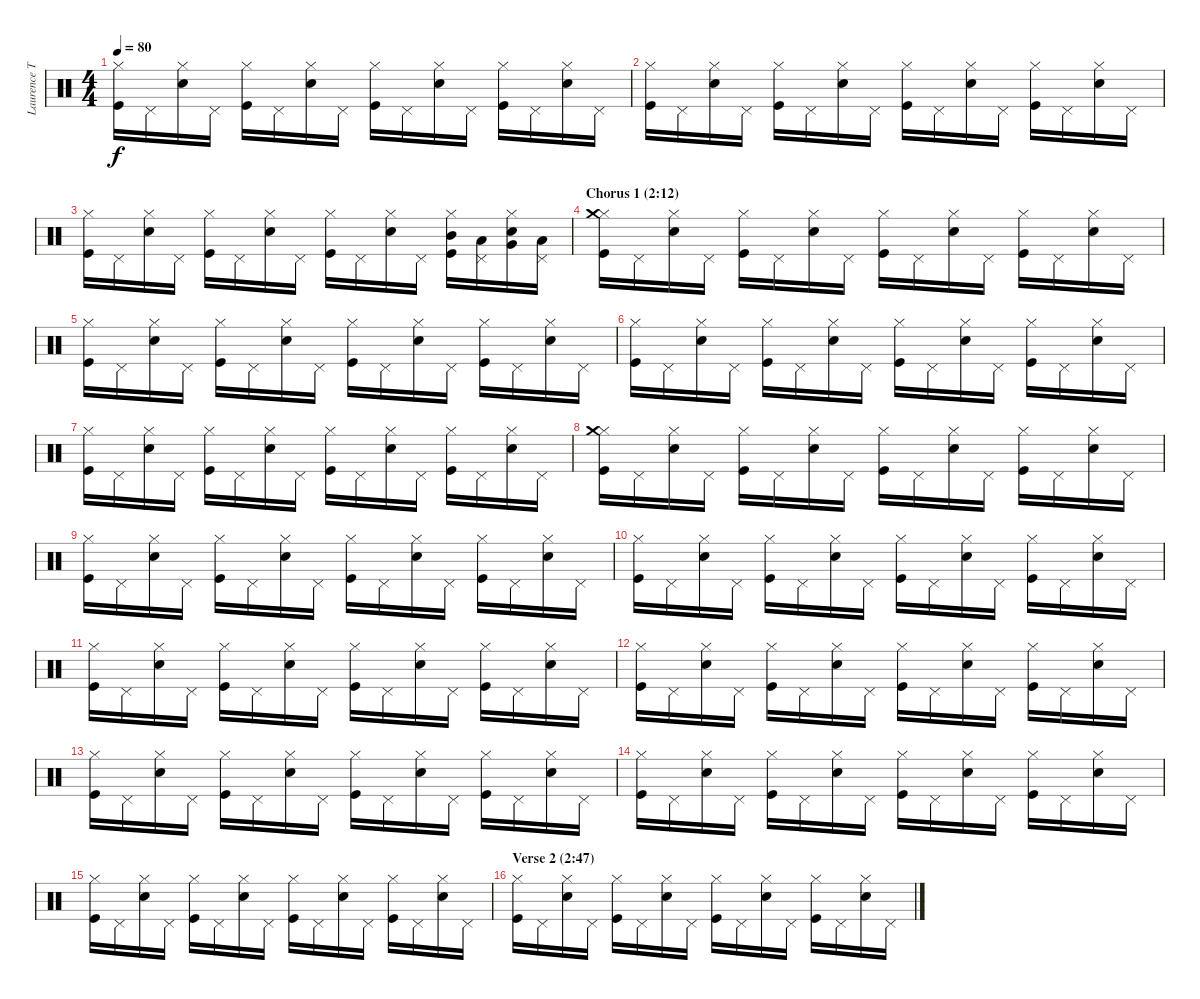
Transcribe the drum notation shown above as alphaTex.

\track ("Laurence Tolhurst (drums)" "Laurence T") {instrument percussion}
\staff {score}
\articulation defaults
\ts (4 4)
\tempo 80
\clef neutral
\ks c
("Kick (hit)" "Hi-Hat (closed)").16{dy f} "Pedal Hi-Hat (hit)".16 ("Snare (hit) 2" "Hi-Hat (closed)").16 "Pedal Hi-Hat (hit)".16 ("Kick (hit)" "Hi-Hat (closed)").16 "Pedal Hi-Hat (hit)".16 ("Snare (hit) 2" "Hi-Hat (closed)").16 "Pedal Hi-Hat (hit)".16 ("Kick (hit)" "Hi-Hat (closed)").16 "Pedal Hi-Hat (hit)".16 ("Snare (hit) 2" "Hi-Hat (closed)").16 "Pedal Hi-Hat (hit)".16 ("Kick (hit)" "Hi-Hat (closed)").16 "Pedal Hi-Hat (hit)".16 ("Snare (hit) 2" "Hi-Hat (closed)").16 "Pedal Hi-Hat (hit)".16 |
("Kick (hit)" "Hi-Hat (closed)").16 "Pedal Hi-Hat (hit)".16 ("Snare (hit) 2" "Hi-Hat (closed)").16 "Pedal Hi-Hat (hit)".16 ("Kick (hit)" "Hi-Hat (closed)").16 "Pedal Hi-Hat (hit)".16 ("Snare (hit) 2" "Hi-Hat (closed)").16 "Pedal Hi-Hat (hit)".16 ("Kick (hit)" "Hi-Hat (closed)").16 "Pedal Hi-Hat (hit)".16 ("Snare (hit) 2" "Hi-Hat (closed)").16 "Pedal Hi-Hat (hit)".16 ("Kick (hit)" "Hi-Hat (closed)").16 "Pedal Hi-Hat (hit)".16 ("Snare (hit) 2" "Hi-Hat (closed)").16 "Pedal Hi-Hat (hit)".16 |
("Kick (hit)" "Hi-Hat (closed)").16 "Pedal Hi-Hat (hit)".16 ("Snare (hit) 2" "Hi-Hat (closed)").16 "Pedal Hi-Hat (hit)".16 ("Kick (hit)" "Hi-Hat (closed)").16 "Pedal Hi-Hat (hit)".16 ("Snare (hit) 2" "Hi-Hat (closed)").16 "Pedal Hi-Hat (hit)".16 ("Kick (hit)" "Hi-Hat (closed)").16 "Pedal Hi-Hat (hit)".16 ("Snare (hit) 2" "Hi-Hat (closed)").16 "Pedal Hi-Hat (hit)".16 ("Kick (hit)" "Hi-Hat (closed)" "Mid Tom (hit)").16 ("Pedal Hi-Hat (hit)" "Low Tom (hit)").16 ("Snare (hit) 2" "Hi-Hat (closed)" "Very Low Tom (hit)").16 ("Pedal Hi-Hat (hit)" "Low Floor Tom (hit)").16 |
\section ("" "Chorus 1 (2:12)")
("Kick (hit)" "Hi-Hat (closed)" "Crash medium (hit)").16 "Pedal Hi-Hat (hit)".16 ("Snare (hit) 2" "Hi-Hat (closed)").16 "Pedal Hi-Hat (hit)".16 ("Kick (hit)" "Hi-Hat (closed)").16 "Pedal Hi-Hat (hit)".16 ("Snare (hit) 2" "Hi-Hat (closed)").16 "Pedal Hi-Hat (hit)".16 ("Kick (hit)" "Hi-Hat (closed)").16 "Pedal Hi-Hat (hit)".16 ("Snare (hit) 2" "Hi-Hat (closed)").16 "Pedal Hi-Hat (hit)".16 ("Kick (hit)" "Hi-Hat (closed)").16 "Pedal Hi-Hat (hit)".16 ("Snare (hit) 2" "Hi-Hat (closed)").16 "Pedal Hi-Hat (hit)".16 |
("Kick (hit)" "Hi-Hat (closed)").16 "Pedal Hi-Hat (hit)".16 ("Snare (hit) 2" "Hi-Hat (closed)").16 "Pedal Hi-Hat (hit)".16 ("Kick (hit)" "Hi-Hat (closed)").16 "Pedal Hi-Hat (hit)".16 ("Snare (hit) 2" "Hi-Hat (closed)").16 "Pedal Hi-Hat (hit)".16 ("Kick (hit)" "Hi-Hat (closed)").16 "Pedal Hi-Hat (hit)".16 ("Snare (hit) 2" "Hi-Hat (closed)").16 "Pedal Hi-Hat (hit)".16 ("Kick (hit)" "Hi-Hat (closed)").16 "Pedal Hi-Hat (hit)".16 ("Snare (hit) 2" "Hi-Hat (closed)").16 "Pedal Hi-Hat (hit)".16 |
("Kick (hit)" "Hi-Hat (closed)").16 "Pedal Hi-Hat (hit)".16 ("Snare (hit) 2" "Hi-Hat (closed)").16 "Pedal Hi-Hat (hit)".16 ("Kick (hit)" "Hi-Hat (closed)").16 "Pedal Hi-Hat (hit)".16 ("Snare (hit) 2" "Hi-Hat (closed)").16 "Pedal Hi-Hat (hit)".16 ("Kick (hit)" "Hi-Hat (closed)").16 "Pedal Hi-Hat (hit)".16 ("Snare (hit) 2" "Hi-Hat (closed)").16 "Pedal Hi-Hat (hit)".16 ("Kick (hit)" "Hi-Hat (closed)").16 "Pedal Hi-Hat (hit)".16 ("Snare (hit) 2" "Hi-Hat (closed)").16 "Pedal Hi-Hat (hit)".16 |
("Kick (hit)" "Hi-Hat (closed)").16 "Pedal Hi-Hat (hit)".16 ("Snare (hit) 2" "Hi-Hat (closed)").16 "Pedal Hi-Hat (hit)".16 ("Kick (hit)" "Hi-Hat (closed)").16 "Pedal Hi-Hat (hit)".16 ("Snare (hit) 2" "Hi-Hat (closed)").16 "Pedal Hi-Hat (hit)".16 ("Kick (hit)" "Hi-Hat (closed)").16 "Pedal Hi-Hat (hit)".16 ("Snare (hit) 2" "Hi-Hat (closed)").16 "Pedal Hi-Hat (hit)".16 ("Kick (hit)" "Hi-Hat (closed)").16 "Pedal Hi-Hat (hit)".16 ("Snare (hit) 2" "Hi-Hat (closed)").16 "Pedal Hi-Hat (hit)".16 |
("Kick (hit)" "Hi-Hat (closed)" "Crash medium (hit)").16 "Pedal Hi-Hat (hit)".16 ("Snare (hit) 2" "Hi-Hat (closed)").16 "Pedal Hi-Hat (hit)".16 ("Kick (hit)" "Hi-Hat (closed)").16 "Pedal Hi-Hat (hit)".16 ("Snare (hit) 2" "Hi-Hat (closed)").16 "Pedal Hi-Hat (hit)".16 ("Kick (hit)" "Hi-Hat (closed)").16 "Pedal Hi-Hat (hit)".16 ("Snare (hit) 2" "Hi-Hat (closed)").16 "Pedal Hi-Hat (hit)".16 ("Kick (hit)" "Hi-Hat (closed)").16 "Pedal Hi-Hat (hit)".16 ("Snare (hit) 2" "Hi-Hat (closed)").16 "Pedal Hi-Hat (hit)".16 |
("Kick (hit)" "Hi-Hat (closed)").16 "Pedal Hi-Hat (hit)".16 ("Snare (hit) 2" "Hi-Hat (closed)").16 "Pedal Hi-Hat (hit)".16 ("Kick (hit)" "Hi-Hat (closed)").16 "Pedal Hi-Hat (hit)".16 ("Snare (hit) 2" "Hi-Hat (closed)").16 "Pedal Hi-Hat (hit)".16 ("Kick (hit)" "Hi-Hat (closed)").16 "Pedal Hi-Hat (hit)".16 ("Snare (hit) 2" "Hi-Hat (closed)").16 "Pedal Hi-Hat (hit)".16 ("Kick (hit)" "Hi-Hat (closed)").16 "Pedal Hi-Hat (hit)".16 ("Snare (hit) 2" "Hi-Hat (closed)").16 "Pedal Hi-Hat (hit)".16 |
("Kick (hit)" "Hi-Hat (closed)").16 "Pedal Hi-Hat (hit)".16 ("Snare (hit) 2" "Hi-Hat (closed)").16 "Pedal Hi-Hat (hit)".16 ("Kick (hit)" "Hi-Hat (closed)").16 "Pedal Hi-Hat (hit)".16 ("Snare (hit) 2" "Hi-Hat (closed)").16 "Pedal Hi-Hat (hit)".16 ("Kick (hit)" "Hi-Hat (closed)").16 "Pedal Hi-Hat (hit)".16 ("Snare (hit) 2" "Hi-Hat (closed)").16 "Pedal Hi-Hat (hit)".16 ("Kick (hit)" "Hi-Hat (closed)").16 "Pedal Hi-Hat (hit)".16 ("Snare (hit) 2" "Hi-Hat (closed)").16 "Pedal Hi-Hat (hit)".16 |
("Kick (hit)" "Hi-Hat (closed)").16 "Pedal Hi-Hat (hit)".16 ("Snare (hit) 2" "Hi-Hat (closed)").16 "Pedal Hi-Hat (hit)".16 ("Kick (hit)" "Hi-Hat (closed)").16 "Pedal Hi-Hat (hit)".16 ("Snare (hit) 2" "Hi-Hat (closed)").16 "Pedal Hi-Hat (hit)".16 ("Kick (hit)" "Hi-Hat (closed)").16 "Pedal Hi-Hat (hit)".16 ("Snare (hit) 2" "Hi-Hat (closed)").16 "Pedal Hi-Hat (hit)".16 ("Kick (hit)" "Hi-Hat (closed)").16 "Pedal Hi-Hat (hit)".16 ("Snare (hit) 2" "Hi-Hat (closed)").16 "Pedal Hi-Hat (hit)".16 |
("Kick (hit)" "Hi-Hat (closed)").16 "Pedal Hi-Hat (hit)".16 ("Snare (hit) 2" "Hi-Hat (closed)").16 "Pedal Hi-Hat (hit)".16 ("Kick (hit)" "Hi-Hat (closed)").16 "Pedal Hi-Hat (hit)".16 ("Snare (hit) 2" "Hi-Hat (closed)").16 "Pedal Hi-Hat (hit)".16 ("Kick (hit)" "Hi-Hat (closed)").16 "Pedal Hi-Hat (hit)".16 ("Snare (hit) 2" "Hi-Hat (closed)").16 "Pedal Hi-Hat (hit)".16 ("Kick (hit)" "Hi-Hat (closed)").16 "Pedal Hi-Hat (hit)".16 ("Snare (hit) 2" "Hi-Hat (closed)").16 "Pedal Hi-Hat (hit)".16 |
("Kick (hit)" "Hi-Hat (closed)").16 "Pedal Hi-Hat (hit)".16 ("Snare (hit) 2" "Hi-Hat (closed)").16 "Pedal Hi-Hat (hit)".16 ("Kick (hit)" "Hi-Hat (closed)").16 "Pedal Hi-Hat (hit)".16 ("Snare (hit) 2" "Hi-Hat (closed)").16 "Pedal Hi-Hat (hit)".16 ("Kick (hit)" "Hi-Hat (closed)").16 "Pedal Hi-Hat (hit)".16 ("Snare (hit) 2" "Hi-Hat (closed)").16 "Pedal Hi-Hat (hit)".16 ("Kick (hit)" "Hi-Hat (closed)").16 "Pedal Hi-Hat (hit)".16 ("Snare (hit) 2" "Hi-Hat (closed)").16 "Pedal Hi-Hat (hit)".16 |
("Kick (hit)" "Hi-Hat (closed)").16 "Pedal Hi-Hat (hit)".16 ("Snare (hit) 2" "Hi-Hat (closed)").16 "Pedal Hi-Hat (hit)".16 ("Kick (hit)" "Hi-Hat (closed)").16 "Pedal Hi-Hat (hit)".16 ("Snare (hit) 2" "Hi-Hat (closed)").16 "Pedal Hi-Hat (hit)".16 ("Kick (hit)" "Hi-Hat (closed)").16 "Pedal Hi-Hat (hit)".16 ("Snare (hit) 2" "Hi-Hat (closed)").16 "Pedal Hi-Hat (hit)".16 ("Kick (hit)" "Hi-Hat (closed)").16 "Pedal Hi-Hat (hit)".16 ("Snare (hit) 2" "Hi-Hat (closed)").16 "Pedal Hi-Hat (hit)".16 |
("Kick (hit)" "Hi-Hat (closed)").16 "Pedal Hi-Hat (hit)".16 ("Snare (hit) 2" "Hi-Hat (closed)").16 "Pedal Hi-Hat (hit)".16 ("Kick (hit)" "Hi-Hat (closed)").16 "Pedal Hi-Hat (hit)".16 ("Snare (hit) 2" "Hi-Hat (closed)").16 "Pedal Hi-Hat (hit)".16 ("Kick (hit)" "Hi-Hat (closed)").16 "Pedal Hi-Hat (hit)".16 ("Snare (hit) 2" "Hi-Hat (closed)").16 "Pedal Hi-Hat (hit)".16 ("Kick (hit)" "Hi-Hat (closed)").16 "Pedal Hi-Hat (hit)".16 ("Snare (hit) 2" "Hi-Hat (closed)").16 "Pedal Hi-Hat (hit)".16 |
\section ("" "Verse 2 (2:47)")
("Kick (hit)" "Hi-Hat (closed)").16 "Pedal Hi-Hat (hit)".16 ("Snare (hit) 2" "Hi-Hat (closed)").16 "Pedal Hi-Hat (hit)".16 ("Kick (hit)" "Hi-Hat (closed)").16 "Pedal Hi-Hat (hit)".16 ("Snare (hit) 2" "Hi-Hat (closed)").16 "Pedal Hi-Hat (hit)".16 ("Kick (hit)" "Hi-Hat (closed)").16 "Pedal Hi-Hat (hit)".16 ("Snare (hit) 2" "Hi-Hat (closed)").16 "Pedal Hi-Hat (hit)".16 ("Kick (hit)" "Hi-Hat (closed)").16 "Pedal Hi-Hat (hit)".16 ("Snare (hit) 2" "Hi-Hat (closed)").16 "Pedal Hi-Hat (hit)".16
